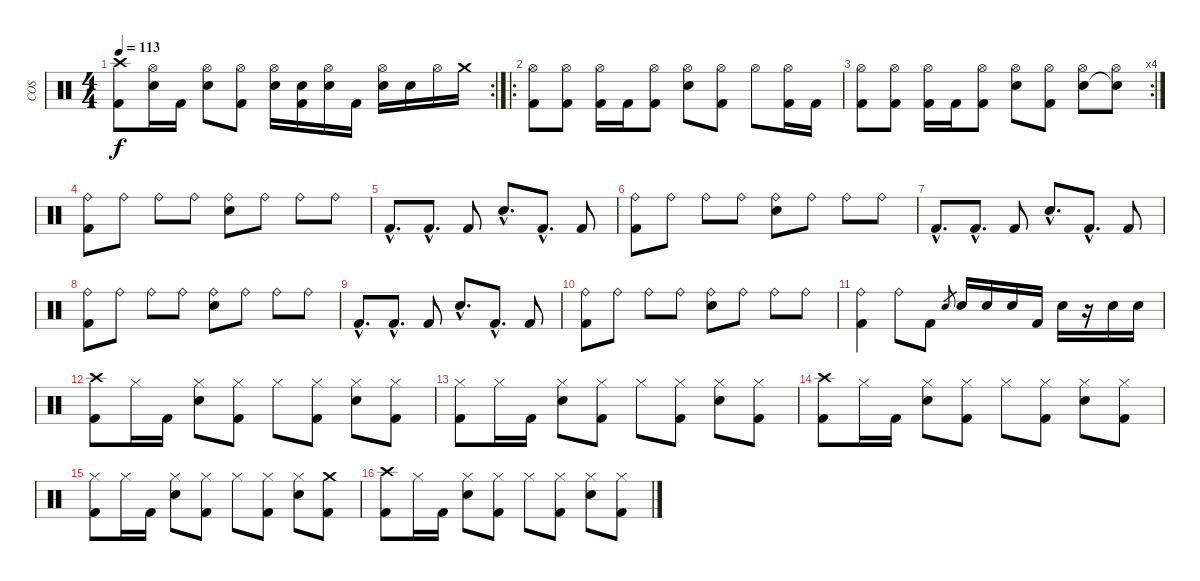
\track ("COS" "COS") {instrument percussion}
\staff {score}
\articulation defaults
\rc 2
\ts (4 4)
\tempo 113
\clef neutral
\ks c
("Crash high (hit)" "Kick (hit) 2").8{dy f} ("Hi-Hat (open)" "Snare (hit)").16 "Kick (hit) 2".16 ("Hi-Hat (open)" "Electric Snare (hit)").8 ("Hi-Hat (open)" "Kick (hit) 2").8 ("Hi-Hat (open)" "Snare (hit)").16 ("Snare (hit)" "Kick (hit) 2").16 ("Hi-Hat (open)" "Electric Snare (hit)").16 "Kick (hit) 2".16 ("Hi-Hat (open)" "Electric Snare (hit)").16 "Electric Snare (hit)".16 "Hi-Hat (open)".16 "Crash medium (hit)".16 |
\ro
("Hi-Hat (open)" "Kick (hit) 2").8 ("Hi-Hat (open)" "Kick (hit) 2").8 ("Hi-Hat (open)" "Kick (hit) 2").16 "Kick (hit) 2".16 ("Hi-Hat (open)" "Kick (hit) 2").8 ("Hi-Hat (open)" "Snare (hit) 2").8 ("Hi-Hat (open)" "Kick (hit) 2").8 "Hi-Hat (open)".8 ("Hi-Hat (open)" "Kick (hit) 2").16 "Kick (hit) 2".16 |
\rc 4
("Hi-Hat (open)" "Kick (hit) 2").8 ("Hi-Hat (open)" "Kick (hit) 2").8 ("Hi-Hat (open)" "Kick (hit) 2").16 "Kick (hit) 2".16 ("Hi-Hat (open)" "Kick (hit) 2").8 ("Hi-Hat (open)" "Snare (hit) 2").8 ("Hi-Hat (open)" "Kick (hit) 2").8 ("Hi-Hat (open)" "Snare (hit) 2").8 ("Hi-Hat (open)" "Snare (hit)"{t}).8 |
("Ride (bell)" "Kick (hit) 2").8 "Ride (bell)".8 "Ride (bell)".8 "Ride (bell)".8 ("Ride (bell)" "Snare (hit) 2").8 "Ride (bell)".8 "Ride (bell)".8 "Ride (bell)".8 |
"Kick (hit) 2"{hac}.8{d} "Kick (hit) 2"{hac}.8{d} "Kick (hit) 2".8 "Snare (hit) 2"{hac}.8{d} "Kick (hit) 2"{hac}.8{d} "Kick (hit) 2".8 |
("Ride (bell)" "Kick (hit) 2").8 "Ride (bell)".8 "Ride (bell)".8 "Ride (bell)".8 ("Ride (bell)" "Snare (hit) 2").8 "Ride (bell)".8 "Ride (bell)".8 "Ride (bell)".8 |
"Kick (hit) 2"{hac}.8{d} "Kick (hit) 2"{hac}.8{d} "Kick (hit) 2".8 "Snare (hit) 2"{hac}.8{d} "Kick (hit) 2"{hac}.8{d} "Kick (hit) 2".8 |
("Ride (bell)" "Kick (hit) 2").8 "Ride (bell)".8 "Ride (bell)".8 "Ride (bell)".8 ("Ride (bell)" "Snare (hit) 2").8 "Ride (bell)".8 "Ride (bell)".8 "Ride (bell)".8 |
"Kick (hit) 2"{hac}.8{d} "Kick (hit) 2"{hac}.8{d} "Kick (hit) 2".8 "Snare (hit) 2"{hac}.8{d} "Kick (hit) 2"{hac}.8{d} "Kick (hit) 2".8 |
("Ride (bell)" "Kick (hit) 2").8 "Ride (bell)".8 "Ride (bell)".8 "Ride (bell)".8 ("Ride (bell)" "Snare (hit) 2").8 "Ride (bell)".8 "Ride (bell)".8 "Ride (bell)".8 |
("Ride (bell)" "Kick (hit) 2").4 "Ride (bell)".8 "Kick (hit) 2".8 "Electric Snare (hit)"{sl}.8{gr} "Electric Snare (hit)".16 "Electric Snare (hit)".16 "Electric Snare (hit)".16 "Kick (hit) 2".16 "Electric Snare (hit)".16 r.16 "Electric Snare (hit)".16 "Electric Snare (hit)".16 |
("Crash high (hit)" "Kick (hit) 2").8 "Hi-Hat (closed)".16 "Kick (hit) 2".16 ("Hi-Hat (closed)" "Electric Snare (hit)").8 ("Hi-Hat (closed)" "Kick (hit) 2").8 "Hi-Hat (closed)".8 ("Hi-Hat (closed)" "Kick (hit) 2").8 ("Hi-Hat (closed)" "Electric Snare (hit)").8 ("Hi-Hat (closed)" "Kick (hit) 2").8 |
("Hi-Hat (closed)" "Kick (hit) 2").8 "Hi-Hat (closed)".16 "Kick (hit) 2".16 ("Hi-Hat (closed)" "Electric Snare (hit)").8 ("Hi-Hat (closed)" "Kick (hit) 2").8 "Hi-Hat (closed)".8 ("Hi-Hat (closed)" "Kick (hit) 2").8 ("Hi-Hat (closed)" "Electric Snare (hit)").8 ("Hi-Hat (closed)" "Kick (hit) 2").8 |
("Crash high (hit)" "Kick (hit) 2").8 "Hi-Hat (closed)".16 "Kick (hit) 2".16 ("Hi-Hat (closed)" "Electric Snare (hit)").8 ("Hi-Hat (closed)" "Kick (hit) 2").8 "Hi-Hat (closed)".8 ("Hi-Hat (closed)" "Kick (hit) 2").8 ("Hi-Hat (closed)" "Electric Snare (hit)").8 ("Hi-Hat (closed)" "Kick (hit) 2").8 |
("Hi-Hat (closed)" "Kick (hit) 2").8 "Hi-Hat (closed)".16 "Kick (hit) 2".16 ("Hi-Hat (closed)" "Electric Snare (hit)").8 ("Hi-Hat (closed)" "Kick (hit) 2").8 "Hi-Hat (closed)".8 ("Hi-Hat (closed)" "Kick (hit) 2").8 ("Hi-Hat (closed)" "Electric Snare (hit)").8 ("Crash medium (hit)" "Kick (hit) 2").8 |
("Crash high (hit)" "Kick (hit) 2").8 "Hi-Hat (closed)".16 "Kick (hit) 2".16 ("Hi-Hat (closed)" "Electric Snare (hit)").8 ("Hi-Hat (closed)" "Kick (hit) 2").8 "Hi-Hat (closed)".8 ("Hi-Hat (closed)" "Kick (hit) 2").8 ("Hi-Hat (closed)" "Electric Snare (hit)").8 ("Hi-Hat (closed)" "Kick (hit) 2").8
